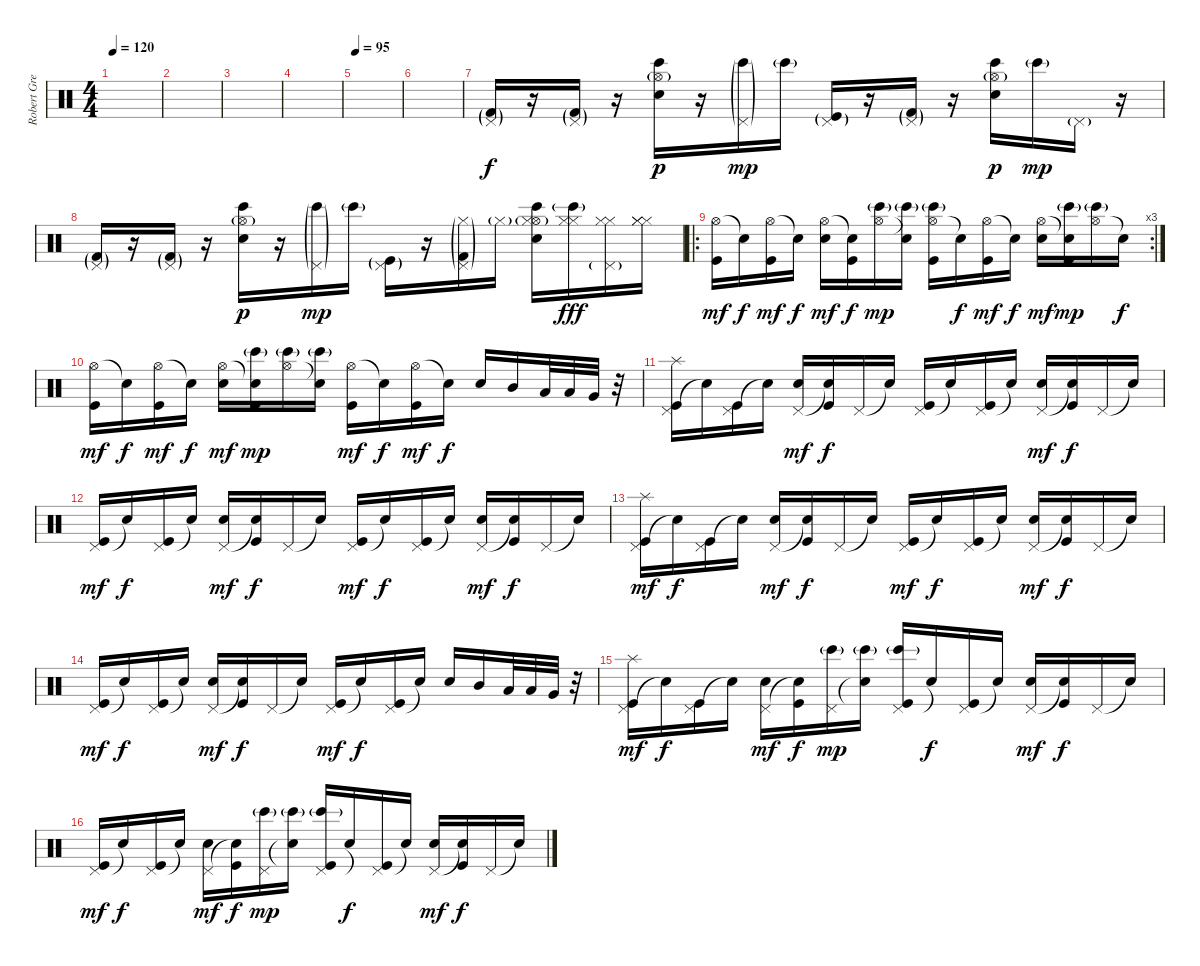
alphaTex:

\track ("Robert Gregory Bourdan" "Robert Gre") {instrument percussion}
\staff {score}
\articulation defaults
\ts (4 4)
\tempo 120
\tempo 95
\tempo 120
\clef neutral
\ks c
|
|
|
|
\tempo 95
|
|
("Pedal Hi-Hat (hit)"{g} "Kick (hit) 2"{g}).16{volume 10} r.16 ("Pedal Hi-Hat (hit)"{g} "Kick (hit) 2"{g}).16 r.16 ("Hi-Hat (open)"{g} "Bongo High (hit)" "Hand Clap (hit)").16{dy p} r.16 ("Pedal Hi-Hat (hit)"{g} "Bongo High (hit)"{g}).16{dy mp} "Bongo High (hit)"{g}.16 ("Pedal Hi-Hat (hit)"{g} "Kick (hit)"{g}).16 r.16 ("Pedal Hi-Hat (hit)"{g} "Kick (hit) 2"{g}).16 r.16 ("Hi-Hat (open)"{g} "Bongo High (hit)" "Hand Clap (hit)").16{dy p} "Bongo High (hit)"{g}.16{dy mp} "Pedal Hi-Hat (hit)"{g}.16 r.16 |
("Pedal Hi-Hat (hit)"{g} "Kick (hit) 2"{g}).16 r.16 ("Pedal Hi-Hat (hit)"{g} "Kick (hit) 2"{g}).16 r.16 ("Hi-Hat (open)"{g} "Bongo High (hit)" "Hand Clap (hit)").16{dy p} r.16 ("Pedal Hi-Hat (hit)"{g} "Bongo High (hit)"{g}).16{dy mp} "Bongo High (hit)"{g}.16 ("Pedal Hi-Hat (hit)"{g} "Kick (hit)"{g}).16 r.16 ("Pedal Hi-Hat (hit)"{g} "Kick (hit) 2"{g} "Hi-Hat (closed)"{g}).16{volume 12} "Hi-Hat (closed)"{g}.16 ("Hi-Hat (open)"{g} "Bongo High (hit)" "Hand Clap (hit)" "Hi-Hat (closed)"{g}).16 ("Bongo High (hit)"{g} "Hi-Hat (closed)" "Hi-Hat (closed)").16{dy fff} ("Pedal Hi-Hat (hit)"{g} "Hi-Hat (closed)" "Hi-Hat (closed)").16 ("Hi-Hat (closed)" "Hi-Hat (closed)" "Hi-Hat (closed)").16 |
\ro
\rc 3
("Hi-Hat (open)" "Kick (hit)").16{dy mf volume 12} "Snare (hit)"{t}.16{dy f} ("Hi-Hat (open)" "Kick (hit)").16{dy mf} "Snare (hit)"{t}.16{dy f} ("Hi-Hat (open)" "Electric Snare (hit)").16{dy mf} ("Snare (hit)"{t} "Kick (hit)").16{dy f} ("Hi-Hat (open)" "Bongo High (hit)"{g}).16{dy mp} ("Snare (hit)"{t} "Bongo High (hit)"{g}).16 ("Hi-Hat (open)" "Kick (hit)" "Bongo High (hit)"{g}).16 "Snare (hit)"{t}.16{dy f} ("Hi-Hat (open)" "Kick (hit)").16{dy mf} "Snare (hit)"{t}.16{dy f} ("Hi-Hat (open)" "Electric Snare (hit)").16{dy mf} ("Snare (hit)"{t} "Kick (hit)" "Bongo High (hit)"{g}).16{dy mp} ("Hi-Hat (open)" "Bongo High (hit)"{g}).16 "Snare (hit)"{t}.16{dy f} |
("Hi-Hat (open)" "Kick (hit)").16{dy mf} "Snare (hit)"{t}.16{dy f} ("Hi-Hat (open)" "Kick (hit)").16{dy mf} "Snare (hit)"{t}.16{dy f} ("Hi-Hat (open)" "Electric Snare (hit)").16{dy mf} ("Snare (hit)"{t} "Kick (hit)" "Bongo High (hit)"{g}).16{dy mp} ("Hi-Hat (open)" "Bongo High (hit)"{g}).16 ("Snare (hit)"{t} "Bongo High (hit)"{g}).16 ("Hi-Hat (open)" "Kick (hit)").16{dy mf} "Snare (hit)"{t}.16{dy f} ("Hi-Hat (open)" "Kick (hit)").16{dy mf} "Snare (hit)"{t}.16{dy f} "Electric Snare (hit)".16 "Mid Tom (hit)".16 "Low Tom (hit)".32 "Low Tom (hit)".32 "Very Low Tom (hit)".32 r.32 |
("Pedal Hi-Hat (hit)" "Splash (hit)" "Kick (hit)").16 "Snare (hit)"{t}.16 ("Pedal Hi-Hat (hit)" "Kick (hit)").16 "Snare (hit)"{t}.16 ("Pedal Hi-Hat (hit)" "Electric Snare (hit)").16{dy mf} ("Snare (hit)"{t} "Kick (hit)").16{dy f} "Pedal Hi-Hat (hit)".16 "Snare (hit)"{t}.16 ("Pedal Hi-Hat (hit)" "Kick (hit)").16 "Snare (hit)"{t}.16 ("Pedal Hi-Hat (hit)" "Kick (hit)").16 "Snare (hit)"{t}.16 ("Pedal Hi-Hat (hit)" "Electric Snare (hit)").16{dy mf} ("Snare (hit)"{t} "Kick (hit)").16{dy f} "Pedal Hi-Hat (hit)".16 "Snare (hit)"{t}.16 |
("Pedal Hi-Hat (hit)" "Kick (hit)").16{dy mf} "Snare (hit)"{t}.16{dy f} ("Pedal Hi-Hat (hit)" "Kick (hit)").16 "Snare (hit)"{t}.16 ("Pedal Hi-Hat (hit)" "Electric Snare (hit)").16{dy mf} ("Snare (hit)"{t} "Kick (hit)").16{dy f} "Pedal Hi-Hat (hit)".16 "Snare (hit)"{t}.16 ("Pedal Hi-Hat (hit)" "Kick (hit)").16{dy mf} "Snare (hit)"{t}.16{dy f} ("Pedal Hi-Hat (hit)" "Kick (hit)").16 "Snare (hit)"{t}.16 ("Pedal Hi-Hat (hit)" "Electric Snare (hit)").16{dy mf} ("Snare (hit)"{t} "Kick (hit)").16{dy f} "Pedal Hi-Hat (hit)".16 "Snare (hit)"{t}.16 |
("Pedal Hi-Hat (hit)" "Splash (hit)" "Kick (hit)").16{dy mf} "Snare (hit)"{t}.16{dy f} ("Pedal Hi-Hat (hit)" "Kick (hit)").16 "Snare (hit)"{t}.16 ("Pedal Hi-Hat (hit)" "Electric Snare (hit)").16{dy mf} ("Snare (hit)"{t} "Kick (hit)").16{dy f} "Pedal Hi-Hat (hit)".16 "Snare (hit)"{t}.16 ("Pedal Hi-Hat (hit)" "Kick (hit)").16{dy mf} "Snare (hit)"{t}.16{dy f} ("Pedal Hi-Hat (hit)" "Kick (hit)").16 "Snare (hit)"{t}.16 ("Pedal Hi-Hat (hit)" "Electric Snare (hit)").16{dy mf} ("Snare (hit)"{t} "Kick (hit)").16{dy f} "Pedal Hi-Hat (hit)".16 "Snare (hit)"{t}.16 |
("Pedal Hi-Hat (hit)" "Kick (hit)").16{dy mf} "Snare (hit)"{t}.16{dy f} ("Pedal Hi-Hat (hit)" "Kick (hit)").16 "Snare (hit)"{t}.16 ("Pedal Hi-Hat (hit)" "Electric Snare (hit)").16{dy mf} ("Snare (hit)"{t} "Kick (hit)").16{dy f} "Pedal Hi-Hat (hit)".16 "Snare (hit)"{t}.16 ("Pedal Hi-Hat (hit)" "Kick (hit)").16{dy mf} "Snare (hit)"{t}.16{dy f} ("Pedal Hi-Hat (hit)" "Kick (hit)").16 "Snare (hit)"{t}.16 "Electric Snare (hit)".16 "Mid Tom (hit)".16 "Low Tom (hit)".32 "Low Tom (hit)".32 "Very Low Tom (hit)".32 r.32 |
("Pedal Hi-Hat (hit)" "Splash (hit)" "Kick (hit)").16{dy mf} "Snare (hit)"{t}.16{dy f} ("Pedal Hi-Hat (hit)" "Kick (hit)").16 "Snare (hit)"{t}.16 ("Pedal Hi-Hat (hit)" "Electric Snare (hit)").16{dy mf} ("Snare (hit)"{t} "Kick (hit)").16{dy f} ("Pedal Hi-Hat (hit)" "Bongo High (hit)"{g}).16{dy mp} ("Snare (hit)"{t} "Bongo High (hit)"{g}).16 ("Pedal Hi-Hat (hit)" "Kick (hit)" "Bongo High (hit)"{g}).16 "Snare (hit)"{t}.16{dy f} ("Pedal Hi-Hat (hit)" "Kick (hit)").16 "Snare (hit)"{t}.16 ("Pedal Hi-Hat (hit)" "Electric Snare (hit)").16{dy mf} ("Snare (hit)"{t} "Kick (hit)").16{dy f} "Pedal Hi-Hat (hit)".16 "Snare (hit)"{t}.16 |
("Pedal Hi-Hat (hit)" "Kick (hit)").16{dy mf} "Snare (hit)"{t}.16{dy f} ("Pedal Hi-Hat (hit)" "Kick (hit)").16 "Snare (hit)"{t}.16 ("Pedal Hi-Hat (hit)" "Electric Snare (hit)").16{dy mf} ("Snare (hit)"{t} "Kick (hit)").16{dy f} ("Pedal Hi-Hat (hit)" "Bongo High (hit)"{g}).16{dy mp} ("Snare (hit)"{t} "Bongo High (hit)"{g}).16 ("Pedal Hi-Hat (hit)" "Kick (hit)" "Bongo High (hit)"{g}).16 "Snare (hit)"{t}.16{dy f} ("Pedal Hi-Hat (hit)" "Kick (hit)").16 "Snare (hit)"{t}.16 ("Pedal Hi-Hat (hit)" "Electric Snare (hit)").16{dy mf} ("Snare (hit)"{t} "Kick (hit)").16{dy f} "Pedal Hi-Hat (hit)".16 "Snare (hit)"{t}.16
